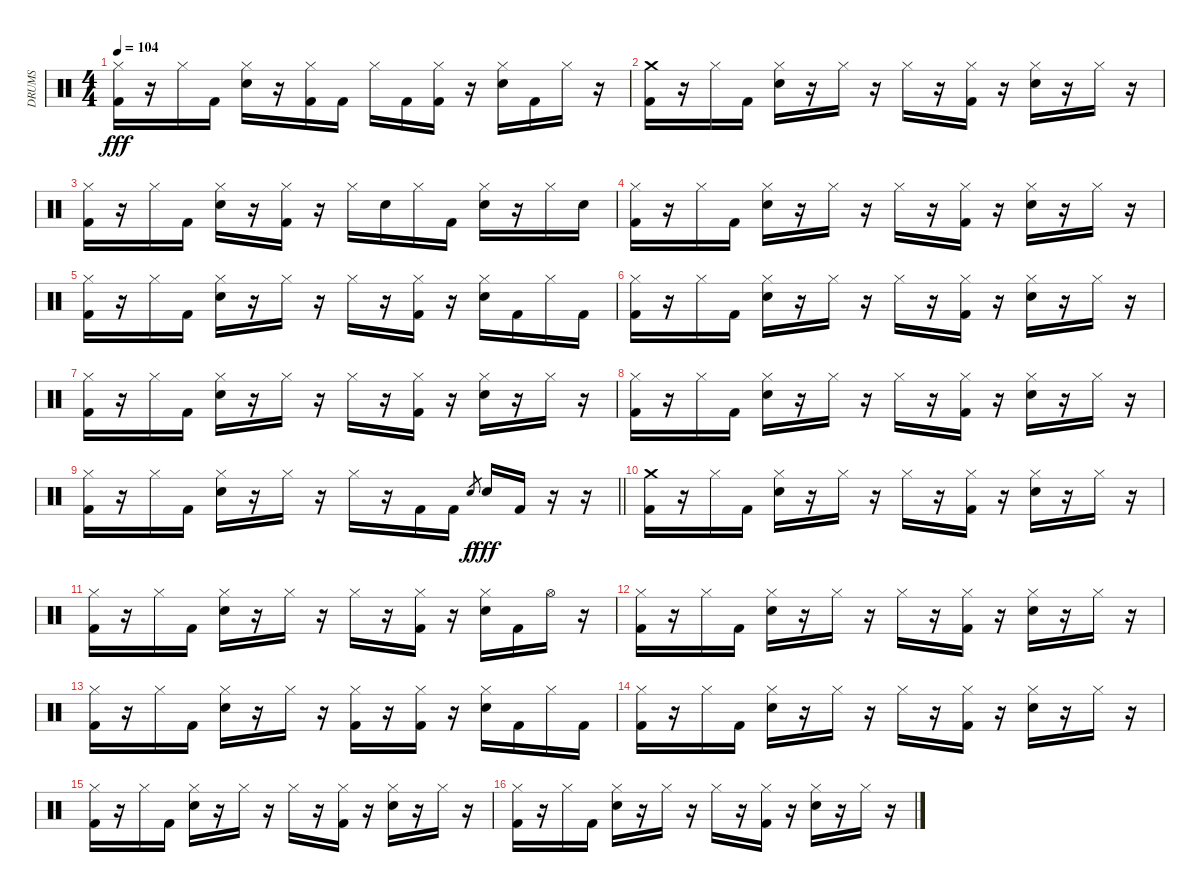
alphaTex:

\track ("DRUMS" "DRUMS") {instrument percussion}
\staff {score}
\articulation defaults
\ts (4 4)
\tempo 104
\clef neutral
\ks c
("Hi-Hat (closed)" "Kick (hit) 2").16{dy fff} r.16 "Hi-Hat (closed)".16 "Kick (hit) 2".16 ("Hi-Hat (closed)" "Snare (hit) 2").16 r.16 ("Hi-Hat (closed)" "Kick (hit) 2").16 "Kick (hit) 2".16 "Hi-Hat (closed)".16 "Kick (hit) 2".16 ("Hi-Hat (closed)" "Kick (hit) 2").16 r.16 ("Hi-Hat (closed)" "Snare (hit) 2").16 "Kick (hit) 2".16 "Hi-Hat (closed)".16 r.16 |
("Crash medium (hit)" "Kick (hit) 2").16 r.16 "Hi-Hat (closed)".16 "Kick (hit) 2".16 ("Hi-Hat (closed)" "Snare (hit) 2").16 r.16 "Hi-Hat (closed)".16 r.16 "Hi-Hat (closed)".16 r.16 ("Hi-Hat (closed)" "Kick (hit) 2").16 r.16 ("Hi-Hat (closed)" "Snare (hit) 2").16 r.16 "Hi-Hat (closed)".16 r.16 |
("Hi-Hat (closed)" "Kick (hit) 2").16 r.16 "Hi-Hat (closed)".16 "Kick (hit) 2".16 ("Hi-Hat (closed)" "Snare (hit) 2").16 r.16 ("Hi-Hat (closed)" "Kick (hit) 2").16 r.16 "Hi-Hat (closed)".16 "Snare (hit) 2".16 "Hi-Hat (closed)".16 "Kick (hit) 2".16 ("Hi-Hat (closed)" "Snare (hit) 2").16 r.16 "Hi-Hat (closed)".16 "Snare (hit) 2".16 |
("Hi-Hat (closed)" "Kick (hit) 2").16 r.16 "Hi-Hat (closed)".16 "Kick (hit) 2".16 ("Hi-Hat (closed)" "Snare (hit) 2").16 r.16 "Hi-Hat (closed)".16 r.16 "Hi-Hat (closed)".16 r.16 ("Hi-Hat (closed)" "Kick (hit) 2").16 r.16 ("Hi-Hat (closed)" "Snare (hit) 2").16 r.16 "Hi-Hat (closed)".16 r.16 |
("Hi-Hat (closed)" "Kick (hit) 2").16 r.16 "Hi-Hat (closed)".16 "Kick (hit) 2".16 ("Hi-Hat (closed)" "Snare (hit) 2").16 r.16 "Hi-Hat (closed)".16 r.16 "Hi-Hat (closed)".16 r.16 ("Hi-Hat (closed)" "Kick (hit) 2").16 r.16 ("Hi-Hat (closed)" "Snare (hit) 2").16 "Kick (hit) 2".16 "Hi-Hat (closed)".16 "Kick (hit) 2".16 |
("Hi-Hat (closed)" "Kick (hit) 2").16 r.16 "Hi-Hat (closed)".16 "Kick (hit) 2".16 ("Hi-Hat (closed)" "Snare (hit) 2").16 r.16 "Hi-Hat (closed)".16 r.16 "Hi-Hat (closed)".16 r.16 ("Hi-Hat (closed)" "Kick (hit) 2").16 r.16 ("Hi-Hat (closed)" "Snare (hit) 2").16 r.16 "Hi-Hat (closed)".16 r.16 |
("Hi-Hat (closed)" "Kick (hit) 2").16 r.16 "Hi-Hat (closed)".16 "Kick (hit) 2".16 ("Hi-Hat (closed)" "Snare (hit) 2").16 r.16 "Hi-Hat (closed)".16 r.16 "Hi-Hat (closed)".16 r.16 ("Hi-Hat (closed)" "Kick (hit) 2").16 r.16 ("Hi-Hat (closed)" "Snare (hit) 2").16 r.16 "Hi-Hat (closed)".16 r.16 |
("Hi-Hat (closed)" "Kick (hit) 2").16 r.16 "Hi-Hat (closed)".16 "Kick (hit) 2".16 ("Hi-Hat (closed)" "Snare (hit) 2").16 r.16 "Hi-Hat (closed)".16 r.16 "Hi-Hat (closed)".16 r.16 ("Hi-Hat (closed)" "Kick (hit) 2").16 r.16 ("Hi-Hat (closed)" "Snare (hit) 2").16 r.16 "Hi-Hat (closed)".16 r.16 |
\barLineRight lightlight
("Hi-Hat (closed)" "Kick (hit) 2").16 r.16 "Hi-Hat (closed)".16 "Kick (hit) 2".16 ("Hi-Hat (closed)" "Snare (hit) 2").16 r.16 "Hi-Hat (closed)".16 r.16 "Hi-Hat (closed)".16 r.16 "Kick (hit) 2".16 "Kick (hit) 2".16 "Snare (hit) 2".8{gr dy f} "Snare (hit) 2".16{dy fff} "Kick (hit) 2".16 r.16 r.16 |
\section ("" "")
("Crash medium (hit)" "Kick (hit) 2").16 r.16 "Hi-Hat (closed)".16 "Kick (hit) 2".16 ("Hi-Hat (closed)" "Snare (hit) 2").16 r.16 "Hi-Hat (closed)".16 r.16 "Hi-Hat (closed)".16 r.16 ("Hi-Hat (closed)" "Kick (hit) 2").16 r.16 ("Hi-Hat (closed)" "Snare (hit) 2").16 r.16 "Hi-Hat (closed)".16 r.16 |
("Hi-Hat (closed)" "Kick (hit) 2").16 r.16 "Hi-Hat (closed)".16 "Kick (hit) 2".16 ("Hi-Hat (closed)" "Snare (hit) 2").16 r.16 "Hi-Hat (closed)".16 r.16 "Hi-Hat (closed)".16 r.16 ("Hi-Hat (closed)" "Kick (hit) 2").16 r.16 ("Hi-Hat (closed)" "Snare (hit) 2").16 "Kick (hit) 2".16 "Hi-Hat (open)".16 r.16 |
("Hi-Hat (closed)" "Kick (hit) 2").16 r.16 "Hi-Hat (closed)".16 "Kick (hit) 2".16 ("Hi-Hat (closed)" "Snare (hit) 2").16 r.16 "Hi-Hat (closed)".16 r.16 "Hi-Hat (closed)".16 r.16 ("Hi-Hat (closed)" "Kick (hit) 2").16 r.16 ("Hi-Hat (closed)" "Snare (hit) 2").16 r.16 "Hi-Hat (closed)".16 r.16 |
("Hi-Hat (closed)" "Kick (hit) 2").16 r.16 "Hi-Hat (closed)".16 "Kick (hit) 2".16 ("Hi-Hat (closed)" "Snare (hit) 2").16 r.16 "Hi-Hat (closed)".16 r.16 ("Hi-Hat (closed)" "Kick (hit) 2").16 r.16 ("Hi-Hat (closed)" "Kick (hit) 2").16 r.16 ("Hi-Hat (closed)" "Snare (hit) 2").16 "Kick (hit) 2".16 "Hi-Hat (closed)".16 "Kick (hit) 2".16 |
("Hi-Hat (closed)" "Kick (hit) 2").16 r.16 "Hi-Hat (closed)".16 "Kick (hit) 2".16 ("Hi-Hat (closed)" "Snare (hit) 2").16 r.16 "Hi-Hat (closed)".16 r.16 "Hi-Hat (closed)".16 r.16 ("Hi-Hat (closed)" "Kick (hit) 2").16 r.16 ("Hi-Hat (closed)" "Snare (hit) 2").16 r.16 "Hi-Hat (closed)".16 r.16 |
("Hi-Hat (closed)" "Kick (hit) 2").16 r.16 "Hi-Hat (closed)".16 "Kick (hit) 2".16 ("Hi-Hat (closed)" "Snare (hit) 2").16 r.16 "Hi-Hat (closed)".16 r.16 "Hi-Hat (closed)".16 r.16 ("Hi-Hat (closed)" "Kick (hit) 2").16 r.16 ("Hi-Hat (closed)" "Snare (hit) 2").16 r.16 "Hi-Hat (closed)".16 r.16 |
("Hi-Hat (closed)" "Kick (hit) 2").16 r.16 "Hi-Hat (closed)".16 "Kick (hit) 2".16 ("Hi-Hat (closed)" "Snare (hit) 2").16 r.16 "Hi-Hat (closed)".16 r.16 "Hi-Hat (closed)".16 r.16 ("Hi-Hat (closed)" "Kick (hit) 2").16 r.16 ("Hi-Hat (closed)" "Snare (hit) 2").16 r.16 "Hi-Hat (closed)".16 r.16
